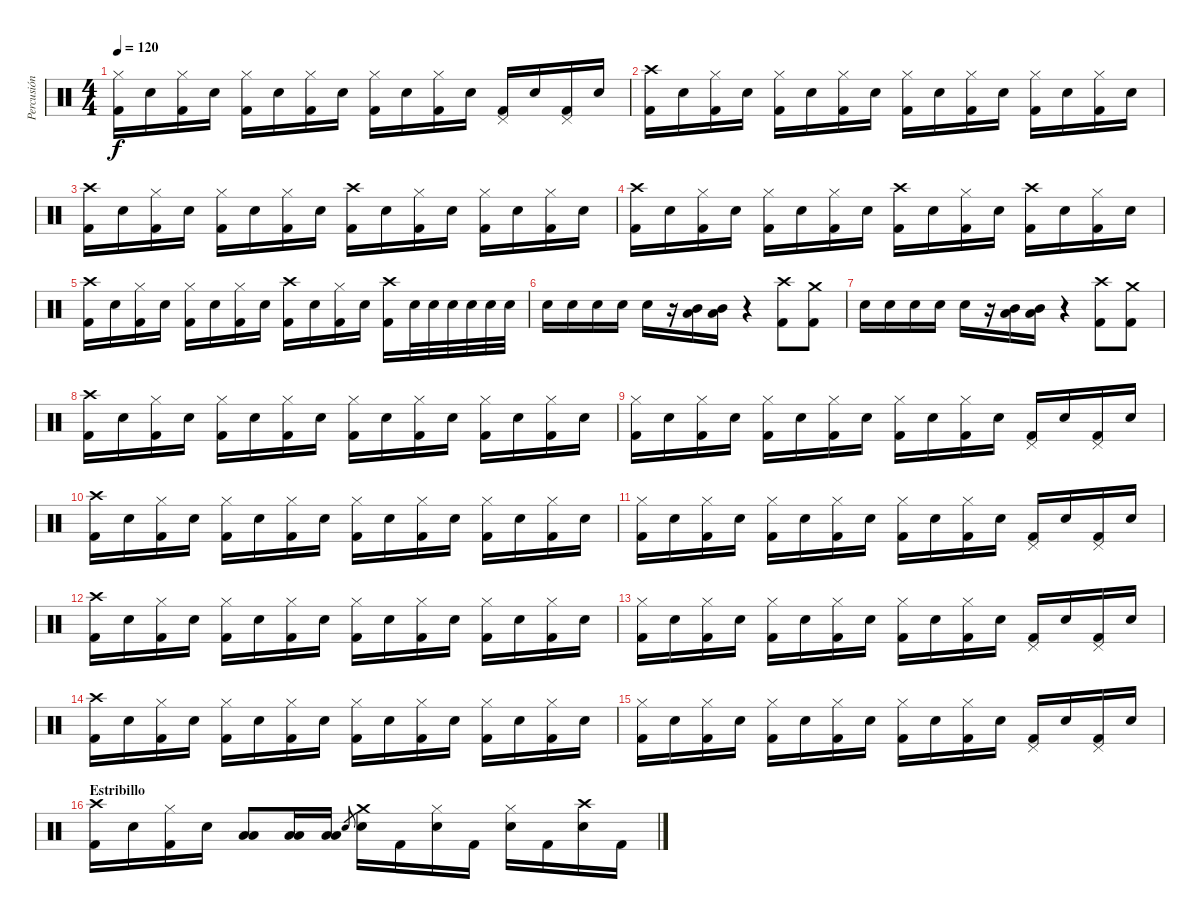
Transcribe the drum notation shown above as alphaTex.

\track ("Percusión" "Percusión") {instrument percussion}
\staff {score}
\articulation defaults
\ts (4 4)
\tempo 120
\clef neutral
\ks c
("Hi-Hat (closed)" "Kick (hit) 2").16{dy f} "Snare (hit) 2".16 ("Hi-Hat (closed)" "Kick (hit) 2").16 "Snare (hit) 2".16 ("Hi-Hat (closed)" "Kick (hit) 2").16 "Snare (hit) 2".16 ("Hi-Hat (closed)" "Kick (hit) 2").16 "Snare (hit) 2".16 ("Hi-Hat (closed)" "Kick (hit) 2").16 "Snare (hit) 2".16 ("Hi-Hat (closed)" "Kick (hit) 2").16 "Snare (hit) 2".16 ("Pedal Hi-Hat (hit)" "Kick (hit) 2").16 "Snare (hit) 2".16 ("Pedal Hi-Hat (hit)" "Kick (hit) 2").16 "Snare (hit) 2".16 |
("Crash high (hit)" "Kick (hit) 2").16 "Snare (hit) 2".16 ("Hi-Hat (closed)" "Kick (hit) 2").16 "Snare (hit) 2".16 ("Hi-Hat (closed)" "Kick (hit) 2").16 "Snare (hit) 2".16 ("Hi-Hat (closed)" "Kick (hit) 2").16 "Snare (hit) 2".16 ("Hi-Hat (closed)" "Kick (hit) 2").16 "Snare (hit) 2".16 ("Hi-Hat (closed)" "Kick (hit) 2").16 "Snare (hit) 2".16 ("Hi-Hat (closed)" "Kick (hit) 2").16 "Snare (hit) 2".16 ("Hi-Hat (closed)" "Kick (hit) 2").16 "Snare (hit) 2".16 |
("Crash high (hit)" "Kick (hit) 2").16 "Snare (hit) 2".16 ("Hi-Hat (closed)" "Kick (hit) 2").16 "Snare (hit) 2".16 ("Hi-Hat (closed)" "Kick (hit) 2").16 "Snare (hit) 2".16 ("Hi-Hat (closed)" "Kick (hit) 2").16 "Snare (hit) 2".16 ("Crash high (hit)" "Kick (hit) 2").16 "Snare (hit) 2".16 ("Hi-Hat (closed)" "Kick (hit) 2").16 "Snare (hit) 2".16 ("Hi-Hat (closed)" "Kick (hit) 2").16 "Snare (hit) 2".16 ("Hi-Hat (closed)" "Kick (hit) 2").16 "Snare (hit) 2".16 |
("Crash high (hit)" "Kick (hit) 2").16 "Snare (hit) 2".16 ("Hi-Hat (closed)" "Kick (hit) 2").16 "Snare (hit) 2".16 ("Hi-Hat (closed)" "Kick (hit) 2").16 "Snare (hit) 2".16 ("Hi-Hat (closed)" "Kick (hit) 2").16 "Snare (hit) 2".16 ("Crash high (hit)" "Kick (hit) 2").16 "Snare (hit) 2".16 ("Hi-Hat (closed)" "Kick (hit) 2").16 "Snare (hit) 2".16 ("Crash high (hit)" "Kick (hit) 2").16 "Snare (hit) 2".16 ("Hi-Hat (closed)" "Kick (hit) 2").16 "Snare (hit) 2".16 |
("Crash high (hit)" "Kick (hit) 2").16 "Snare (hit) 2".16 ("Hi-Hat (closed)" "Kick (hit) 2").16 "Snare (hit) 2".16 ("Hi-Hat (closed)" "Kick (hit) 2").16 "Snare (hit) 2".16 ("Hi-Hat (closed)" "Kick (hit) 2").16 "Snare (hit) 2".16 ("Crash high (hit)" "Kick (hit) 2").16 "Snare (hit) 2".16 ("Hi-Hat (closed)" "Kick (hit) 2").16 "Snare (hit) 2".16 ("Crash high (hit)" "Kick (hit) 2").16 "Snare (hit) 2".32 "Snare (hit) 2".32 "Snare (hit) 2".32 "Snare (hit) 2".32 "Snare (hit) 2".32 "Snare (hit) 2".32 |
"Snare (hit) 2".16 "Snare (hit) 2".16 "Snare (hit) 2".16 "Snare (hit) 2".16 "Snare (hit) 2".16 r.16 ("Mid Tom (hit)" "Low Tom (hit)").16 ("Mid Tom (hit)" "Low Tom (hit)").16 r.4 ("Crash high (hit)" "Kick (hit) 2").8 ("Crash medium (hit)" "Kick (hit) 2").8 |
"Snare (hit) 2".16 "Snare (hit) 2".16 "Snare (hit) 2".16 "Snare (hit) 2".16 "Snare (hit) 2".16 r.16 ("Mid Tom (hit)" "Low Tom (hit)").16 ("Mid Tom (hit)" "Low Tom (hit)").16 r.4 ("Crash high (hit)" "Kick (hit) 2").8 ("Crash medium (hit)" "Kick (hit) 2").8 |
("Crash high (hit)" "Kick (hit) 2").16 "Snare (hit) 2".16 ("Hi-Hat (closed)" "Kick (hit) 2").16 "Snare (hit) 2".16 ("Hi-Hat (closed)" "Kick (hit) 2").16 "Snare (hit) 2".16 ("Hi-Hat (closed)" "Kick (hit) 2").16 "Snare (hit) 2".16 ("Hi-Hat (closed)" "Kick (hit) 2").16 "Snare (hit) 2".16 ("Hi-Hat (closed)" "Kick (hit) 2").16 "Snare (hit) 2".16 ("Hi-Hat (closed)" "Kick (hit) 2").16 "Snare (hit) 2".16 ("Hi-Hat (closed)" "Kick (hit) 2").16 "Snare (hit) 2".16 |
("Hi-Hat (closed)" "Kick (hit) 2").16 "Snare (hit) 2".16 ("Hi-Hat (closed)" "Kick (hit) 2").16 "Snare (hit) 2".16 ("Hi-Hat (closed)" "Kick (hit) 2").16 "Snare (hit) 2".16 ("Hi-Hat (closed)" "Kick (hit) 2").16 "Snare (hit) 2".16 ("Hi-Hat (closed)" "Kick (hit) 2").16 "Snare (hit) 2".16 ("Hi-Hat (closed)" "Kick (hit) 2").16 "Snare (hit) 2".16 ("Pedal Hi-Hat (hit)" "Kick (hit) 2").16 "Snare (hit) 2".16 ("Pedal Hi-Hat (hit)" "Kick (hit) 2").16 "Snare (hit) 2".16 |
("Crash high (hit)" "Kick (hit) 2").16 "Snare (hit) 2".16 ("Hi-Hat (closed)" "Kick (hit) 2").16 "Snare (hit) 2".16 ("Hi-Hat (closed)" "Kick (hit) 2").16 "Snare (hit) 2".16 ("Hi-Hat (closed)" "Kick (hit) 2").16 "Snare (hit) 2".16 ("Hi-Hat (closed)" "Kick (hit) 2").16 "Snare (hit) 2".16 ("Hi-Hat (closed)" "Kick (hit) 2").16 "Snare (hit) 2".16 ("Hi-Hat (closed)" "Kick (hit) 2").16 "Snare (hit) 2".16 ("Hi-Hat (closed)" "Kick (hit) 2").16 "Snare (hit) 2".16 |
("Hi-Hat (closed)" "Kick (hit) 2").16 "Snare (hit) 2".16 ("Hi-Hat (closed)" "Kick (hit) 2").16 "Snare (hit) 2".16 ("Hi-Hat (closed)" "Kick (hit) 2").16 "Snare (hit) 2".16 ("Hi-Hat (closed)" "Kick (hit) 2").16 "Snare (hit) 2".16 ("Hi-Hat (closed)" "Kick (hit) 2").16 "Snare (hit) 2".16 ("Hi-Hat (closed)" "Kick (hit) 2").16 "Snare (hit) 2".16 ("Pedal Hi-Hat (hit)" "Kick (hit) 2").16 "Snare (hit) 2".16 ("Pedal Hi-Hat (hit)" "Kick (hit) 2").16 "Snare (hit) 2".16 |
("Crash high (hit)" "Kick (hit) 2").16 "Snare (hit) 2".16 ("Hi-Hat (closed)" "Kick (hit) 2").16 "Snare (hit) 2".16 ("Hi-Hat (closed)" "Kick (hit) 2").16 "Snare (hit) 2".16 ("Hi-Hat (closed)" "Kick (hit) 2").16 "Snare (hit) 2".16 ("Hi-Hat (closed)" "Kick (hit) 2").16 "Snare (hit) 2".16 ("Hi-Hat (closed)" "Kick (hit) 2").16 "Snare (hit) 2".16 ("Hi-Hat (closed)" "Kick (hit) 2").16 "Snare (hit) 2".16 ("Hi-Hat (closed)" "Kick (hit) 2").16 "Snare (hit) 2".16 |
("Hi-Hat (closed)" "Kick (hit) 2").16 "Snare (hit) 2".16 ("Hi-Hat (closed)" "Kick (hit) 2").16 "Snare (hit) 2".16 ("Hi-Hat (closed)" "Kick (hit) 2").16 "Snare (hit) 2".16 ("Hi-Hat (closed)" "Kick (hit) 2").16 "Snare (hit) 2".16 ("Hi-Hat (closed)" "Kick (hit) 2").16 "Snare (hit) 2".16 ("Hi-Hat (closed)" "Kick (hit) 2").16 "Snare (hit) 2".16 ("Pedal Hi-Hat (hit)" "Kick (hit) 2").16 "Snare (hit) 2".16 ("Pedal Hi-Hat (hit)" "Kick (hit) 2").16 "Snare (hit) 2".16 |
("Crash high (hit)" "Kick (hit) 2").16 "Snare (hit) 2".16 ("Hi-Hat (closed)" "Kick (hit) 2").16 "Snare (hit) 2".16 ("Hi-Hat (closed)" "Kick (hit) 2").16 "Snare (hit) 2".16 ("Hi-Hat (closed)" "Kick (hit) 2").16 "Snare (hit) 2".16 ("Hi-Hat (closed)" "Kick (hit) 2").16 "Snare (hit) 2".16 ("Hi-Hat (closed)" "Kick (hit) 2").16 "Snare (hit) 2".16 ("Hi-Hat (closed)" "Kick (hit) 2").16 "Snare (hit) 2".16 ("Hi-Hat (closed)" "Kick (hit) 2").16 "Snare (hit) 2".16 |
("Hi-Hat (closed)" "Kick (hit) 2").16 "Snare (hit) 2".16 ("Hi-Hat (closed)" "Kick (hit) 2").16 "Snare (hit) 2".16 ("Hi-Hat (closed)" "Kick (hit) 2").16 "Snare (hit) 2".16 ("Hi-Hat (closed)" "Kick (hit) 2").16 "Snare (hit) 2".16 ("Hi-Hat (closed)" "Kick (hit) 2").16 "Snare (hit) 2".16 ("Hi-Hat (closed)" "Kick (hit) 2").16 "Snare (hit) 2".16 ("Pedal Hi-Hat (hit)" "Kick (hit) 2").16 "Snare (hit) 2".16 ("Pedal Hi-Hat (hit)" "Kick (hit) 2").16 "Snare (hit) 2".16 |
\section ("" "Estribillo")
("Crash high (hit)" "Kick (hit) 2").16 "Snare (hit) 2".16 ("Hi-Hat (closed)" "Kick (hit) 2").16 "Snare (hit) 2".16 ("Low Tom (hit)" "Low Floor Tom (hit)").8 ("Low Tom (hit)" "Low Floor Tom (hit)").16 ("Low Floor Tom (hit)" "Low Tom (hit)").16 "Snare (hit) 2".8{gr} ("Crash medium (hit)" "Snare (hit) 2").16 "Kick (hit) 2".16 ("Hi-Hat (closed)" "Snare (hit) 2").16 "Kick (hit) 2".16 ("Hi-Hat (closed)" "Snare (hit) 2").16 "Kick (hit) 2".16 ("Crash high (hit)" "Snare (hit) 2").16 "Kick (hit) 2".16
